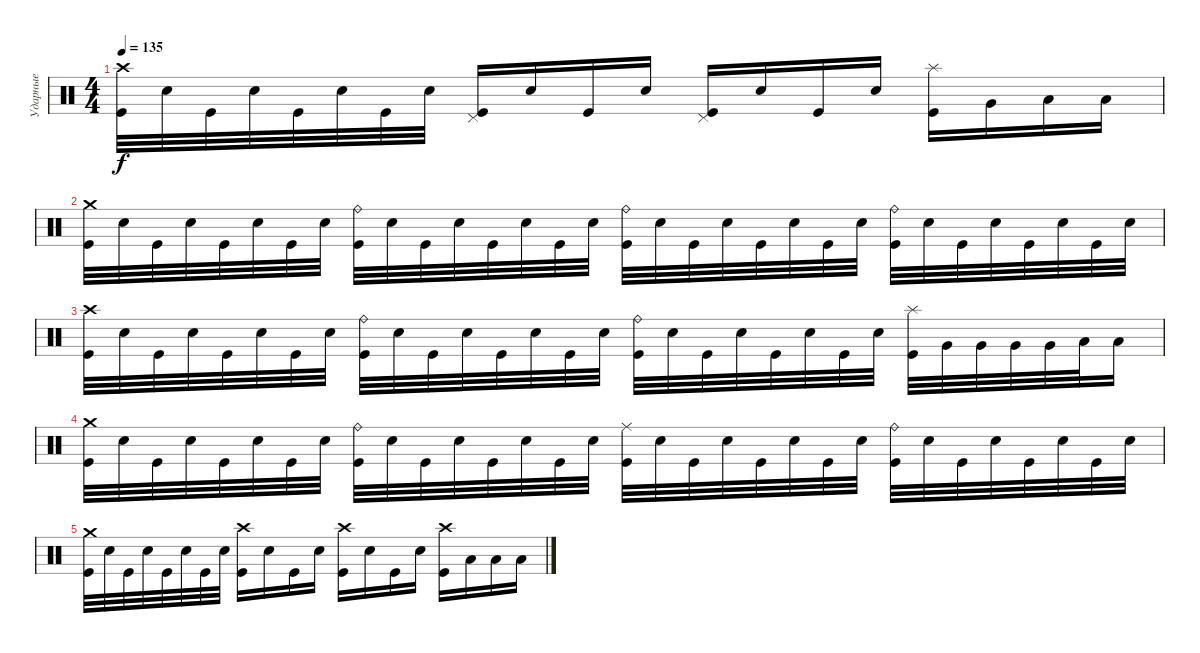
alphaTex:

\track ("Ударные" "Ударные") {instrument percussion}
\staff {score}
\articulation defaults
\ts (4 4)
\tempo 135
\clef neutral
\ks c
("Crash high (hit)" "Kick (hit)").32{dy f} "Electric Snare (hit)".32 "Kick (hit)".32 "Electric Snare (hit)".32 "Kick (hit)".32 "Electric Snare (hit)".32 "Kick (hit)".32 "Electric Snare (hit)".32 ("Pedal Hi-Hat (hit)" "Kick (hit)").16 "Electric Snare (hit)".16 "Kick (hit)".16 "Electric Snare (hit)".16 ("Pedal Hi-Hat (hit)" "Kick (hit)").16 "Electric Snare (hit)".16 "Kick (hit)".16 "Electric Snare (hit)".16 ("Splash (hit)" "Kick (hit)").16 "Very Low Tom (hit)".16 "Low Floor Tom (hit)".16 "Low Floor Tom (hit)".16 |
("Crash medium (hit)" "Kick (hit)").32 "Electric Snare (hit)".32 "Kick (hit)".32 "Electric Snare (hit)".32 "Kick (hit)".32 "Electric Snare (hit)".32 "Kick (hit)".32 "Electric Snare (hit)".32 ("Ride (bell)" "Kick (hit)").32 "Electric Snare (hit)".32 "Kick (hit)".32 "Electric Snare (hit)".32 "Kick (hit)".32 "Electric Snare (hit)".32 "Kick (hit)".32 "Electric Snare (hit)".32 ("Ride (bell)" "Kick (hit)").32 "Electric Snare (hit)".32 "Kick (hit)".32 "Electric Snare (hit)".32 "Kick (hit)".32 "Electric Snare (hit)".32 "Kick (hit)".32 "Electric Snare (hit)".32 ("Ride (bell)" "Kick (hit)").32 "Electric Snare (hit)".32 "Kick (hit)".32 "Electric Snare (hit)".32 "Kick (hit)".32 "Electric Snare (hit)".32 "Kick (hit)".32 "Electric Snare (hit)".32 |
("Crash high (hit)" "Kick (hit)").32 "Electric Snare (hit)".32 "Kick (hit)".32 "Electric Snare (hit)".32 "Kick (hit)".32 "Electric Snare (hit)".32 "Kick (hit)".32 "Electric Snare (hit)".32 ("Ride (bell)" "Kick (hit)").32 "Electric Snare (hit)".32 "Kick (hit)".32 "Electric Snare (hit)".32 "Kick (hit)".32 "Electric Snare (hit)".32 "Kick (hit)".32 "Electric Snare (hit)".32 ("Ride (bell)" "Kick (hit)").32 "Electric Snare (hit)".32 "Kick (hit)".32 "Electric Snare (hit)".32 "Kick (hit)".32 "Electric Snare (hit)".32 "Kick (hit)".32 "Electric Snare (hit)".32 ("Splash (hit)" "Kick (hit)").32 "Very Low Tom (hit)".32 "Very Low Tom (hit)".32 "Very Low Tom (hit)".32 "Very Low Tom (hit)".32 "Low Floor Tom (hit)".32 "Low Floor Tom (hit)".16 |
("Crash medium (hit)" "Kick (hit)").32 "Electric Snare (hit)".32 "Kick (hit)".32 "Electric Snare (hit)".32 "Kick (hit)".32 "Electric Snare (hit)".32 "Kick (hit)".32 "Electric Snare (hit)".32 ("Ride (bell)" "Kick (hit)").32 "Electric Snare (hit)".32 "Kick (hit)".32 "Electric Snare (hit)".32 "Kick (hit)".32 "Electric Snare (hit)".32 "Kick (hit)".32 "Electric Snare (hit)".32 ("Ride (middle)" "Kick (hit)").32 "Electric Snare (hit)".32 "Kick (hit)".32 "Electric Snare (hit)".32 "Kick (hit)".32 "Electric Snare (hit)".32 "Kick (hit)".32 "Electric Snare (hit)".32 ("Ride (bell)" "Kick (hit)").32 "Electric Snare (hit)".32 "Kick (hit)".32 "Electric Snare (hit)".32 "Kick (hit)".32 "Electric Snare (hit)".32 "Kick (hit)".32 "Electric Snare (hit)".32 |
("Crash medium (hit)" "Kick (hit)").32 "Electric Snare (hit)".32 "Kick (hit)".32 "Electric Snare (hit)".32 "Kick (hit)".32 "Electric Snare (hit)".32 "Kick (hit)".32 "Electric Snare (hit)".32 ("Crash high (hit)" "Kick (hit)").16 "Electric Snare (hit)".16 "Kick (hit)".16 "Electric Snare (hit)".16 ("Crash high (hit)" "Kick (hit)").16 "Electric Snare (hit)".16 "Kick (hit)".16 "Electric Snare (hit)".16 ("Crash high (hit)" "Kick (hit)").16 "Low Floor Tom (hit)".16 "Low Floor Tom (hit)".16 "Low Floor Tom (hit)".16
